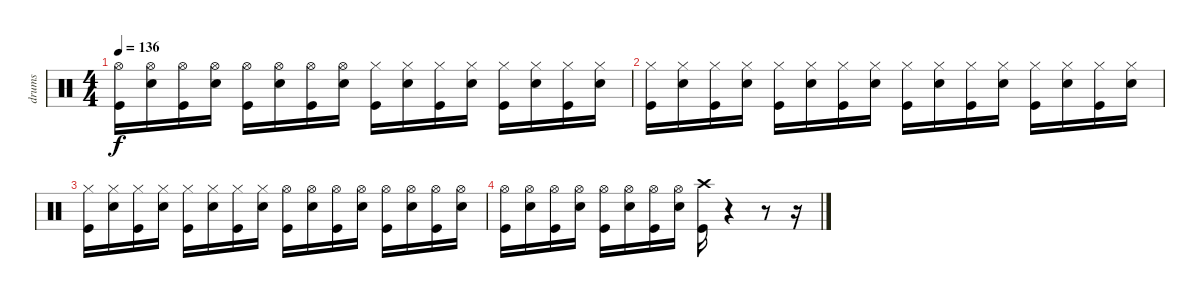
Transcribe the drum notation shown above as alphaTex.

\track ("drums" "drums") {instrument percussion}
\staff {score}
\articulation defaults
\ts (4 4)
\tempo 136
\clef neutral
\ks c
("Hi-Hat (open)" "Kick (hit)").16{dy f} ("Hi-Hat (open)" "Snare (hit) 2").16 ("Hi-Hat (open)" "Kick (hit)").16 ("Hi-Hat (open)" "Snare (hit) 2").16 ("Hi-Hat (open)" "Kick (hit)").16 ("Hi-Hat (open)" "Snare (hit) 2").16 ("Hi-Hat (open)" "Kick (hit)").16 ("Hi-Hat (open)" "Snare (hit) 2").16 ("Hi-Hat (closed)" "Kick (hit)").16 ("Hi-Hat (closed)" "Snare (hit) 2").16 ("Hi-Hat (closed)" "Kick (hit)").16 ("Hi-Hat (closed)" "Snare (hit) 2").16 ("Hi-Hat (closed)" "Kick (hit)").16 ("Hi-Hat (closed)" "Snare (hit) 2").16 ("Hi-Hat (closed)" "Kick (hit)").16 ("Hi-Hat (closed)" "Snare (hit) 2").16 |
("Hi-Hat (closed)" "Kick (hit)").16 ("Hi-Hat (closed)" "Snare (hit) 2").16 ("Hi-Hat (closed)" "Kick (hit)").16 ("Hi-Hat (closed)" "Snare (hit) 2").16 ("Hi-Hat (closed)" "Kick (hit)").16 ("Hi-Hat (closed)" "Snare (hit) 2").16 ("Hi-Hat (closed)" "Kick (hit)").16 ("Hi-Hat (closed)" "Snare (hit) 2").16 ("Hi-Hat (closed)" "Kick (hit)").16 ("Hi-Hat (closed)" "Snare (hit) 2").16 ("Hi-Hat (closed)" "Kick (hit)").16 ("Hi-Hat (closed)" "Snare (hit) 2").16 ("Hi-Hat (closed)" "Kick (hit)").16 ("Hi-Hat (closed)" "Snare (hit) 2").16 ("Hi-Hat (closed)" "Kick (hit)").16 ("Hi-Hat (closed)" "Snare (hit) 2").16 |
("Hi-Hat (closed)" "Kick (hit)").16 ("Hi-Hat (closed)" "Snare (hit) 2").16 ("Hi-Hat (closed)" "Kick (hit)").16 ("Hi-Hat (closed)" "Snare (hit) 2").16 ("Hi-Hat (closed)" "Kick (hit)").16 ("Hi-Hat (closed)" "Snare (hit) 2").16 ("Hi-Hat (closed)" "Kick (hit)").16 ("Hi-Hat (closed)" "Snare (hit) 2").16 ("Hi-Hat (open)" "Kick (hit)").16 ("Hi-Hat (open)" "Snare (hit) 2").16 ("Hi-Hat (open)" "Kick (hit)").16 ("Hi-Hat (open)" "Snare (hit) 2").16 ("Hi-Hat (open)" "Kick (hit)").16 ("Hi-Hat (open)" "Snare (hit) 2").16 ("Hi-Hat (open)" "Kick (hit)").16 ("Hi-Hat (open)" "Snare (hit) 2").16 |
("Hi-Hat (open)" "Kick (hit)").16 ("Hi-Hat (open)" "Snare (hit) 2").16 ("Hi-Hat (open)" "Kick (hit)").16 ("Hi-Hat (open)" "Snare (hit) 2").16 ("Hi-Hat (open)" "Kick (hit)").16 ("Hi-Hat (open)" "Snare (hit) 2").16 ("Hi-Hat (open)" "Kick (hit)").16 ("Hi-Hat (open)" "Snare (hit) 2").16 ("Crash high (hit)" "Kick (hit)").16 r.4 r.8 r.16
